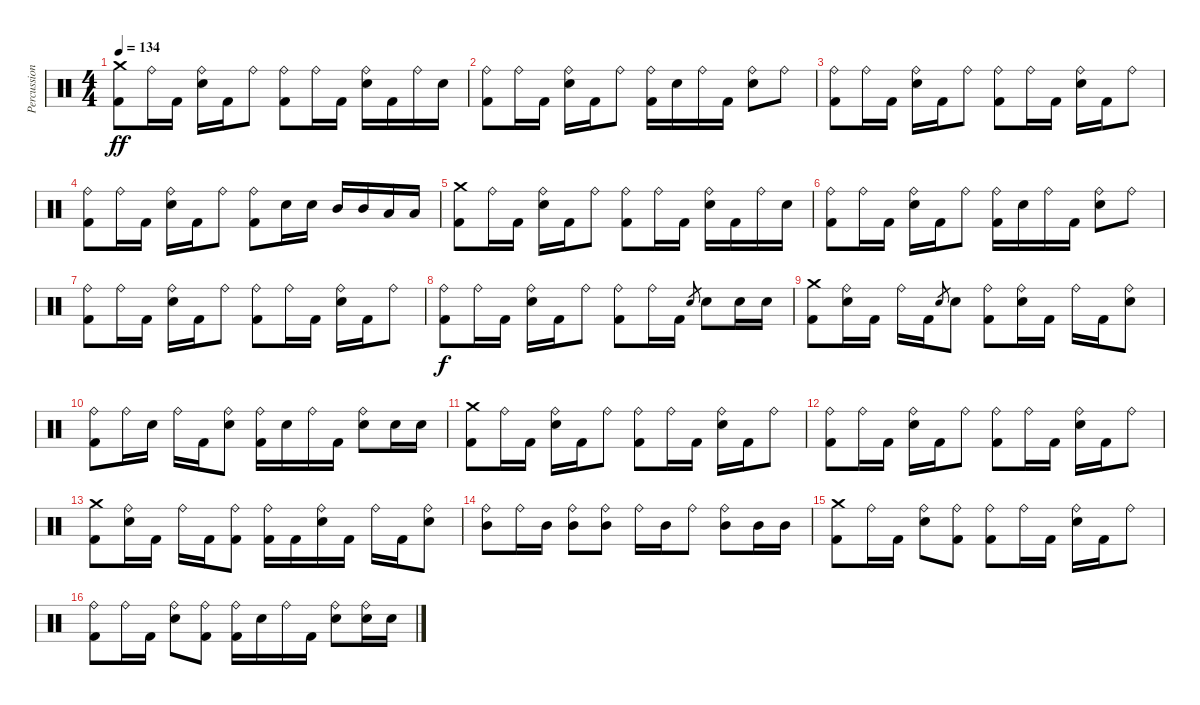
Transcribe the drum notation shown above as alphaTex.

\track ("Percussion" "Percussion") {instrument percussion}
\staff {score}
\articulation defaults
\ts (4 4)
\tempo 134
\clef neutral
\ks c
("Kick (hit) 2" "Crash medium (hit)").8{dy ff} "Ride (bell)".16 "Kick (hit) 2".16 ("Electric Snare (hit)" "Ride (bell)").16 "Kick (hit) 2".16 "Ride (bell)".8 ("Kick (hit) 2" "Ride (bell)").8 "Ride (bell)".16 "Kick (hit) 2".16 ("Electric Snare (hit)" "Ride (bell)").16 "Kick (hit) 2".16 "Ride (bell)".16 "Electric Snare (hit)".16 |
("Kick (hit) 2" "Ride (bell)").8 "Ride (bell)".16 "Kick (hit) 2".16 ("Electric Snare (hit)" "Ride (bell)").16 "Kick (hit) 2".16 "Ride (bell)".8 ("Kick (hit) 2" "Ride (bell)").16 "Electric Snare (hit)".16 "Ride (bell)".16 "Kick (hit) 2".16 ("Electric Snare (hit)" "Ride (bell)").8 "Ride (bell)".8 |
("Kick (hit) 2" "Ride (bell)").8 "Ride (bell)".16 "Kick (hit) 2".16 ("Electric Snare (hit)" "Ride (bell)").16 "Kick (hit) 2".16 "Ride (bell)".8 ("Kick (hit) 2" "Ride (bell)").8 "Ride (bell)".16 "Kick (hit) 2".16 ("Electric Snare (hit)" "Ride (bell)").16 "Kick (hit) 2".16 "Ride (bell)".8 |
("Kick (hit) 2" "Ride (bell)").8 "Ride (bell)".16 "Kick (hit) 2".16 ("Electric Snare (hit)" "Ride (bell)").16 "Kick (hit) 2".16 "Ride (bell)".8 ("Kick (hit) 2" "Ride (bell)").8 "Electric Snare (hit)".16 "Electric Snare (hit)".16 "Mid Tom (hit)".16 "Mid Tom (hit)".16 "Low Tom (hit)".16 "Low Tom (hit)".16 |
("Kick (hit) 2" "Crash medium (hit)").8 "Ride (bell)".16 "Kick (hit) 2".16 ("Electric Snare (hit)" "Ride (bell)").16 "Kick (hit) 2".16 "Ride (bell)".8 ("Kick (hit) 2" "Ride (bell)").8 "Ride (bell)".16 "Kick (hit) 2".16 ("Electric Snare (hit)" "Ride (bell)").16 "Kick (hit) 2".16 "Ride (bell)".16 "Electric Snare (hit)".16 |
("Kick (hit) 2" "Ride (bell)").8 "Ride (bell)".16 "Kick (hit) 2".16 ("Electric Snare (hit)" "Ride (bell)").16 "Kick (hit) 2".16 "Ride (bell)".8 ("Kick (hit) 2" "Ride (bell)").16 "Electric Snare (hit)".16 "Ride (bell)".16 "Kick (hit) 2".16 ("Electric Snare (hit)" "Ride (bell)").8 "Ride (bell)".8 |
("Kick (hit) 2" "Ride (bell)").8 "Ride (bell)".16 "Kick (hit) 2".16 ("Electric Snare (hit)" "Ride (bell)").16 "Kick (hit) 2".16 "Ride (bell)".8 ("Kick (hit) 2" "Ride (bell)").8 "Ride (bell)".16 "Kick (hit) 2".16 ("Electric Snare (hit)" "Ride (bell)").16 "Kick (hit) 2".16 "Ride (bell)".8 |
("Kick (hit) 2" "Ride (bell)").8{dy f} "Ride (bell)".16 "Kick (hit) 2".16 ("Electric Snare (hit)" "Ride (bell)").16 "Kick (hit) 2".16 "Ride (bell)".8 ("Kick (hit) 2" "Ride (bell)").8 "Ride (bell)".16 "Kick (hit) 2".16 "Electric Snare (hit)".8{gr} "Electric Snare (hit)".8 "Electric Snare (hit)".16 "Electric Snare (hit)".16 |
("Kick (hit) 2" "Crash medium (hit)").8 ("Electric Snare (hit)" "Ride (bell)").16 "Kick (hit) 2".16 "Ride (bell)".16 "Kick (hit) 2".16 "Electric Snare (hit)".8{gr} "Electric Snare (hit)".8 ("Kick (hit) 2" "Ride (bell)").8 ("Electric Snare (hit)" "Ride (bell)").16 "Kick (hit) 2".16 "Ride (bell)".16 "Kick (hit) 2".16 ("Electric Snare (hit)" "Ride (bell)").8 |
("Kick (hit) 2" "Ride (bell)").8 "Ride (bell)".16 "Electric Snare (hit)".16 "Ride (bell)".16 "Kick (hit) 2".16 ("Electric Snare (hit)" "Ride (bell)").8 ("Kick (hit) 2" "Ride (bell)").16 "Electric Snare (hit)".16 "Ride (bell)".16 "Kick (hit) 2".16 ("Electric Snare (hit)" "Ride (bell)").8 "Electric Snare (hit)".16 "Electric Snare (hit)".16 |
("Kick (hit) 2" "Crash medium (hit)").8 "Ride (bell)".16 "Kick (hit) 2".16 ("Electric Snare (hit)" "Ride (bell)").16 "Kick (hit) 2".16 "Ride (bell)".8 ("Kick (hit) 2" "Ride (bell)").8 "Ride (bell)".16 "Kick (hit) 2".16 ("Electric Snare (hit)" "Ride (bell)").16 "Kick (hit) 2".16 "Ride (bell)".8 |
("Kick (hit) 2" "Ride (bell)").8 "Ride (bell)".16 "Kick (hit) 2".16 ("Electric Snare (hit)" "Ride (bell)").16 "Kick (hit) 2".16 "Ride (bell)".8 ("Kick (hit) 2" "Ride (bell)").8 "Ride (bell)".16 "Kick (hit) 2".16 ("Electric Snare (hit)" "Ride (bell)").16 "Kick (hit) 2".16 "Ride (bell)".8 |
("Kick (hit) 2" "Crash medium (hit)").8 ("Electric Snare (hit)" "Ride (bell)").16 "Kick (hit) 2".16 "Ride (bell)".16 "Kick (hit) 2".16 ("Kick (hit) 2" "Ride (bell)").8 ("Kick (hit) 2" "Ride (bell)").16 "Kick (hit) 2".16 ("Electric Snare (hit)" "Ride (bell)").16 "Kick (hit) 2".16 "Ride (bell)".16 "Kick (hit) 2".16 ("Electric Snare (hit)" "Ride (bell)").8 |
("Mid Tom (hit)" "Ride (bell)").8 "Ride (bell)".16 "Mid Tom (hit)".16 ("Mid Tom (hit)" "Ride (bell)").8 ("Mid Tom (hit)" "Ride (bell)").8 "Ride (bell)".16 "Mid Tom (hit)".16 "Ride (bell)".8 ("Mid Tom (hit)" "Ride (bell)").8 "Mid Tom (hit)".16 "Mid Tom (hit)".16 |
("Kick (hit) 2" "Crash medium (hit)").8 "Ride (bell)".16 "Kick (hit) 2".16 ("Electric Snare (hit)" "Ride (bell)").8 ("Kick (hit) 2" "Ride (bell)").8 ("Kick (hit) 2" "Ride (bell)").8 "Ride (bell)".16 "Kick (hit) 2".16 ("Electric Snare (hit)" "Ride (bell)").16 "Kick (hit) 2".16 "Ride (bell)".8 |
("Kick (hit) 2" "Ride (bell)").8 "Ride (bell)".16 "Kick (hit) 2".16 ("Electric Snare (hit)" "Ride (bell)").8 ("Kick (hit) 2" "Ride (bell)").8 ("Kick (hit) 2" "Ride (bell)").16 "Electric Snare (hit)".16 "Ride (bell)".16 "Kick (hit) 2".16 ("Electric Snare (hit)" "Ride (bell)").8 ("Electric Snare (hit)" "Ride (bell)").16 "Electric Snare (hit)".16
